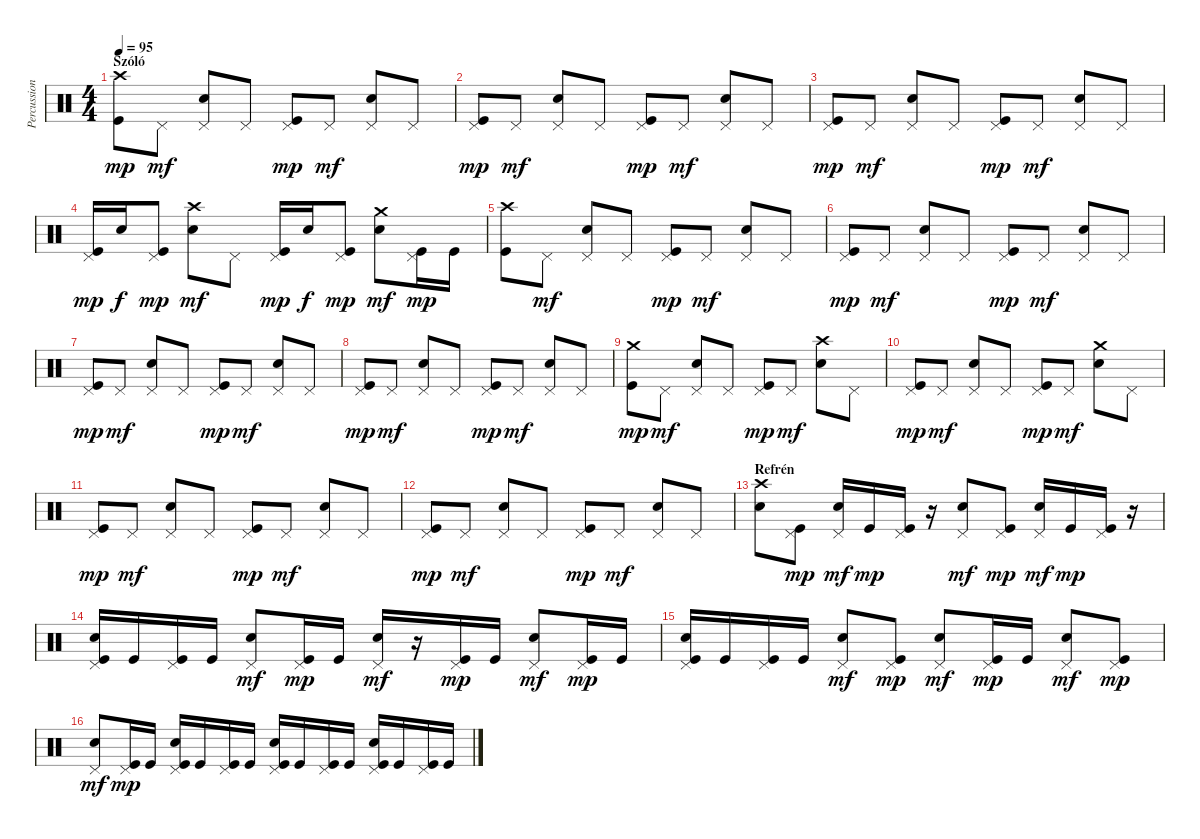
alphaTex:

\track ("Percussion" "Percussion") {instrument percussion}
\staff {score}
\articulation defaults
\ts (4 4)
\section ("" "Szóló")
\tempo 95
\clef neutral
\ks c
("Crash high (hit)" "Kick (hit)").8{dy mp} "Pedal Hi-Hat (hit)".8{dy mf} ("Pedal Hi-Hat (hit)" "Electric Snare (hit)").8 "Pedal Hi-Hat (hit)".8 ("Pedal Hi-Hat (hit)" "Kick (hit)").8{dy mp} "Pedal Hi-Hat (hit)".8{dy mf} ("Pedal Hi-Hat (hit)" "Electric Snare (hit)").8 "Pedal Hi-Hat (hit)".8 |
("Pedal Hi-Hat (hit)" "Kick (hit)").8{dy mp} "Pedal Hi-Hat (hit)".8{dy mf} ("Pedal Hi-Hat (hit)" "Electric Snare (hit)").8 "Pedal Hi-Hat (hit)".8 ("Pedal Hi-Hat (hit)" "Kick (hit)").8{dy mp} "Pedal Hi-Hat (hit)".8{dy mf} ("Pedal Hi-Hat (hit)" "Electric Snare (hit)").8 "Pedal Hi-Hat (hit)".8 |
("Pedal Hi-Hat (hit)" "Kick (hit)").8{dy mp} "Pedal Hi-Hat (hit)".8{dy mf} ("Pedal Hi-Hat (hit)" "Electric Snare (hit)").8 "Pedal Hi-Hat (hit)".8 ("Pedal Hi-Hat (hit)" "Kick (hit)").8{dy mp} "Pedal Hi-Hat (hit)".8{dy mf} ("Pedal Hi-Hat (hit)" "Electric Snare (hit)").8 "Pedal Hi-Hat (hit)".8 |
("Pedal Hi-Hat (hit)" "Kick (hit)").16{dy mp} "Electric Snare (hit)".16{dy f} ("Pedal Hi-Hat (hit)" "Kick (hit)").8{dy mp} ("Crash high (hit)" "Electric Snare (hit)").8{dy mf} "Pedal Hi-Hat (hit)".8 ("Pedal Hi-Hat (hit)" "Kick (hit)").16{dy mp} "Electric Snare (hit)".16{dy f} ("Pedal Hi-Hat (hit)" "Kick (hit)").8{dy mp} ("Crash medium (hit)" "Electric Snare (hit)").8{dy mf} ("Pedal Hi-Hat (hit)" "Kick (hit)").16{dy mp} "Kick (hit)".16 |
("Crash high (hit)" "Kick (hit)").8 "Pedal Hi-Hat (hit)".8{dy mf} ("Pedal Hi-Hat (hit)" "Electric Snare (hit)").8 "Pedal Hi-Hat (hit)".8 ("Pedal Hi-Hat (hit)" "Kick (hit)").8{dy mp} "Pedal Hi-Hat (hit)".8{dy mf} ("Pedal Hi-Hat (hit)" "Electric Snare (hit)").8 "Pedal Hi-Hat (hit)".8 |
("Pedal Hi-Hat (hit)" "Kick (hit)").8{dy mp} "Pedal Hi-Hat (hit)".8{dy mf} ("Pedal Hi-Hat (hit)" "Electric Snare (hit)").8 "Pedal Hi-Hat (hit)".8 ("Pedal Hi-Hat (hit)" "Kick (hit)").8{dy mp} "Pedal Hi-Hat (hit)".8{dy mf} ("Pedal Hi-Hat (hit)" "Electric Snare (hit)").8 "Pedal Hi-Hat (hit)".8 |
("Pedal Hi-Hat (hit)" "Kick (hit)").8{dy mp} "Pedal Hi-Hat (hit)".8{dy mf} ("Pedal Hi-Hat (hit)" "Electric Snare (hit)").8 "Pedal Hi-Hat (hit)".8 ("Pedal Hi-Hat (hit)" "Kick (hit)").8{dy mp} "Pedal Hi-Hat (hit)".8{dy mf} ("Pedal Hi-Hat (hit)" "Electric Snare (hit)").8 "Pedal Hi-Hat (hit)".8 |
("Pedal Hi-Hat (hit)" "Kick (hit)").8{dy mp} "Pedal Hi-Hat (hit)".8{dy mf} ("Pedal Hi-Hat (hit)" "Electric Snare (hit)").8 "Pedal Hi-Hat (hit)".8 ("Pedal Hi-Hat (hit)" "Kick (hit)").8{dy mp} "Pedal Hi-Hat (hit)".8{dy mf} ("Pedal Hi-Hat (hit)" "Electric Snare (hit)").8 "Pedal Hi-Hat (hit)".8 |
("Crash medium (hit)" "Kick (hit)").8{dy mp} "Pedal Hi-Hat (hit)".8{dy mf} ("Pedal Hi-Hat (hit)" "Electric Snare (hit)").8 "Pedal Hi-Hat (hit)".8 ("Pedal Hi-Hat (hit)" "Kick (hit)").8{dy mp} "Pedal Hi-Hat (hit)".8{dy mf} ("Crash high (hit)" "Electric Snare (hit)").8 "Pedal Hi-Hat (hit)".8 |
("Pedal Hi-Hat (hit)" "Kick (hit)").8{dy mp} "Pedal Hi-Hat (hit)".8{dy mf} ("Pedal Hi-Hat (hit)" "Electric Snare (hit)").8 "Pedal Hi-Hat (hit)".8 ("Pedal Hi-Hat (hit)" "Kick (hit)").8{dy mp} "Pedal Hi-Hat (hit)".8{dy mf} ("Crash medium (hit)" "Electric Snare (hit)").8 "Pedal Hi-Hat (hit)".8 |
("Pedal Hi-Hat (hit)" "Kick (hit)").8{dy mp} "Pedal Hi-Hat (hit)".8{dy mf} ("Pedal Hi-Hat (hit)" "Electric Snare (hit)").8 "Pedal Hi-Hat (hit)".8 ("Pedal Hi-Hat (hit)" "Kick (hit)").8{dy mp} "Pedal Hi-Hat (hit)".8{dy mf} ("Pedal Hi-Hat (hit)" "Electric Snare (hit)").8 "Pedal Hi-Hat (hit)".8 |
("Pedal Hi-Hat (hit)" "Kick (hit)").8{dy mp} "Pedal Hi-Hat (hit)".8{dy mf} ("Pedal Hi-Hat (hit)" "Electric Snare (hit)").8 "Pedal Hi-Hat (hit)".8 ("Pedal Hi-Hat (hit)" "Kick (hit)").8{dy mp} "Pedal Hi-Hat (hit)".8{dy mf} ("Pedal Hi-Hat (hit)" "Electric Snare (hit)").8 "Pedal Hi-Hat (hit)".8 |
\section ("" "Refrén")
("Crash high (hit)" "Electric Snare (hit)").8 ("Pedal Hi-Hat (hit)" "Kick (hit)").8{dy mp} ("Pedal Hi-Hat (hit)" "Electric Snare (hit)").16{dy mf} "Kick (hit)".16{dy mp} ("Pedal Hi-Hat (hit)" "Kick (hit)").16 r.16 ("Pedal Hi-Hat (hit)" "Electric Snare (hit)").8{dy mf} ("Pedal Hi-Hat (hit)" "Kick (hit)").8{dy mp} ("Pedal Hi-Hat (hit)" "Electric Snare (hit)").16{dy mf} "Kick (hit)".16{dy mp} ("Pedal Hi-Hat (hit)" "Kick (hit)").16 r.16 |
("Pedal Hi-Hat (hit)" "Kick (hit)" "Electric Snare (hit)").16 "Kick (hit)".16 ("Pedal Hi-Hat (hit)" "Kick (hit)").16 "Kick (hit)".16 ("Pedal Hi-Hat (hit)" "Electric Snare (hit)").8{dy mf} ("Pedal Hi-Hat (hit)" "Kick (hit)").16{dy mp} "Kick (hit)".16 ("Pedal Hi-Hat (hit)" "Electric Snare (hit)").16{dy mf} r.16 ("Pedal Hi-Hat (hit)" "Kick (hit)").16{dy mp} "Kick (hit)".16 ("Pedal Hi-Hat (hit)" "Electric Snare (hit)").8{dy mf} ("Pedal Hi-Hat (hit)" "Kick (hit)").16{dy mp} "Kick (hit)".16 |
("Pedal Hi-Hat (hit)" "Kick (hit)" "Electric Snare (hit)").16 "Kick (hit)".16 ("Pedal Hi-Hat (hit)" "Kick (hit)").16 "Kick (hit)".16 ("Pedal Hi-Hat (hit)" "Electric Snare (hit)").8{dy mf} ("Pedal Hi-Hat (hit)" "Kick (hit)").8{dy mp} ("Pedal Hi-Hat (hit)" "Electric Snare (hit)").8{dy mf} ("Pedal Hi-Hat (hit)" "Kick (hit)").16{dy mp} "Kick (hit)".16 ("Pedal Hi-Hat (hit)" "Electric Snare (hit)").8{dy mf} ("Pedal Hi-Hat (hit)" "Kick (hit)").8{dy mp} |
("Pedal Hi-Hat (hit)" "Electric Snare (hit)").8{dy mf} ("Pedal Hi-Hat (hit)" "Kick (hit)").16{dy mp} "Kick (hit)".16 ("Pedal Hi-Hat (hit)" "Kick (hit)" "Electric Snare (hit)").16 "Kick (hit)".16 ("Pedal Hi-Hat (hit)" "Kick (hit)").16 "Kick (hit)".16 ("Pedal Hi-Hat (hit)" "Kick (hit)" "Electric Snare (hit)").16 "Kick (hit)".16 ("Pedal Hi-Hat (hit)" "Kick (hit)").16 "Kick (hit)".16 ("Pedal Hi-Hat (hit)" "Kick (hit)" "Electric Snare (hit)").16 "Kick (hit)".16 ("Pedal Hi-Hat (hit)" "Kick (hit)").16 "Kick (hit)".16
